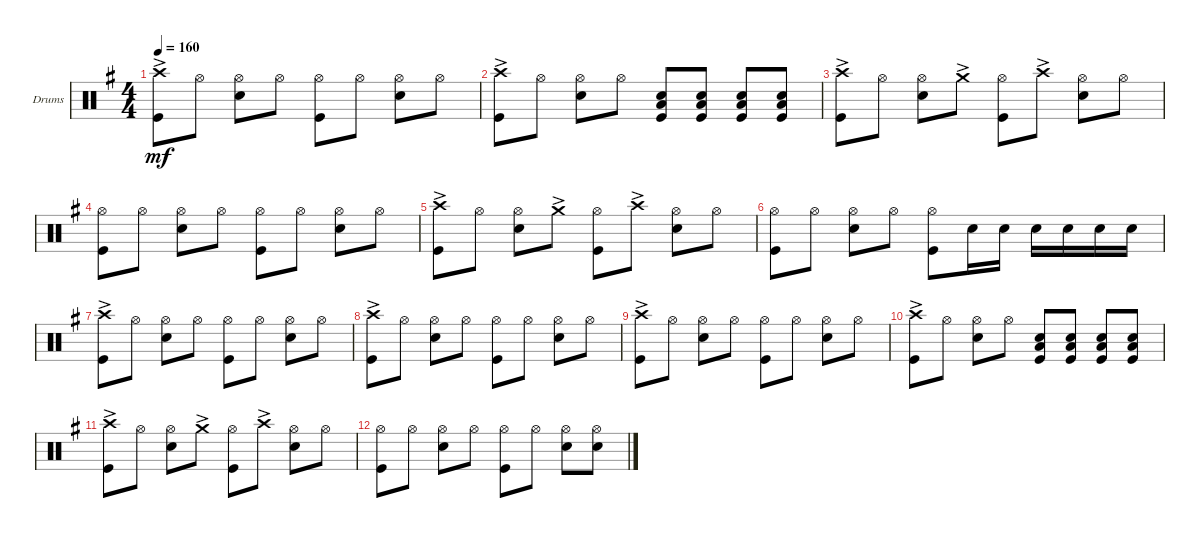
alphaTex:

\defaultSystemsLayout 4
\bracketExtendMode groupsimilarinstruments
\firstSystemTrackNameOrientation horizontal
\otherSystemsTrackNameOrientation horizontal
\track ("Drumkit" "Drums") {instrument percussion}
\staff {score}
\articulation defaults
\ts (4 4)
\tempo 160
\clef neutral
\ks eminor
("Kick (hit)" "Crash high (hit)"{ac}).8{dy mf} "Hi-Hat (open)".8 ("Hi-Hat (open)" "Snare (hit) 2").8 "Hi-Hat (open)".8 ("Hi-Hat (open)" "Kick (hit)").8 "Hi-Hat (open)".8 ("Hi-Hat (open)" "Snare (hit) 2").8 "Hi-Hat (open)".8 |
("Kick (hit)" "Crash high (hit)"{ac}).8 "Hi-Hat (open)".8 ("Hi-Hat (open)" "Snare (hit) 2").8 "Hi-Hat (open)".8 ("Snare (hit) 2" "Low Tom (hit)" "Kick (hit)").8 ("Snare (hit) 2" "Low Tom (hit)" "Kick (hit)").8 ("Snare (hit) 2" "Low Tom (hit)" "Kick (hit)").8 ("Snare (hit) 2" "Low Tom (hit)" "Kick (hit)").8 |
("Kick (hit)" "Crash high (hit)"{ac}).8 "Hi-Hat (open)".8 ("Hi-Hat (open)" "Snare (hit) 2").8 "Crash medium (hit)"{ac}.8 ("Hi-Hat (open)" "Kick (hit)").8 "Crash high (hit)"{ac}.8 ("Snare (hit) 2" "Hi-Hat (open)").8 "Hi-Hat (open)".8 |
("Kick (hit)" "Hi-Hat (open)").8 "Hi-Hat (open)".8 ("Hi-Hat (open)" "Snare (hit) 2").8 "Hi-Hat (open)".8 ("Hi-Hat (open)" "Kick (hit)").8 "Hi-Hat (open)".8 ("Hi-Hat (open)" "Snare (hit) 2").8 "Hi-Hat (open)".8 |
("Kick (hit)" "Crash high (hit)"{ac}).8 "Hi-Hat (open)".8 ("Hi-Hat (open)" "Snare (hit) 2").8 "Crash medium (hit)"{ac}.8 ("Hi-Hat (open)" "Kick (hit)").8 "Crash high (hit)"{ac}.8 ("Snare (hit) 2" "Hi-Hat (open)").8 "Hi-Hat (open)".8 |
("Kick (hit)" "Hi-Hat (open)").8 "Hi-Hat (open)".8 ("Hi-Hat (open)" "Snare (hit) 2").8 "Hi-Hat (open)".8 ("Hi-Hat (open)" "Kick (hit)").8 "Snare (hit) 2".16 "Snare (hit) 2".16 "Snare (hit) 2".16 "Snare (hit) 2".16 "Snare (hit) 2".16 "Snare (hit) 2".16 |
("Kick (hit)" "Crash high (hit)"{ac}).8 "Hi-Hat (open)".8 ("Hi-Hat (open)" "Snare (hit) 2").8 "Hi-Hat (open)".8 ("Hi-Hat (open)" "Kick (hit)").8 "Hi-Hat (open)".8 ("Hi-Hat (open)" "Snare (hit) 2").8 "Hi-Hat (open)".8 |
("Kick (hit)" "Crash high (hit)"{ac}).8 "Hi-Hat (open)".8 ("Hi-Hat (open)" "Snare (hit) 2").8 "Hi-Hat (open)".8 ("Hi-Hat (open)" "Kick (hit)").8 "Hi-Hat (open)".8 ("Hi-Hat (open)" "Snare (hit) 2").8 "Hi-Hat (open)".8 |
("Kick (hit)" "Crash high (hit)"{ac}).8 "Hi-Hat (open)".8 ("Hi-Hat (open)" "Snare (hit) 2").8 "Hi-Hat (open)".8 ("Hi-Hat (open)" "Kick (hit)").8 "Hi-Hat (open)".8 ("Hi-Hat (open)" "Snare (hit) 2").8 "Hi-Hat (open)".8 |
("Kick (hit)" "Crash high (hit)"{ac}).8 "Hi-Hat (open)".8 ("Hi-Hat (open)" "Snare (hit) 2").8 "Hi-Hat (open)".8 ("Snare (hit) 2" "Low Tom (hit)" "Kick (hit)").8 ("Snare (hit) 2" "Low Tom (hit)" "Kick (hit)").8 ("Snare (hit) 2" "Low Tom (hit)" "Kick (hit)").8 ("Snare (hit) 2" "Low Tom (hit)" "Kick (hit)").8 |
("Kick (hit)" "Crash high (hit)"{ac}).8 "Hi-Hat (open)".8 ("Hi-Hat (open)" "Snare (hit) 2").8 "Crash medium (hit)"{ac}.8 ("Hi-Hat (open)" "Kick (hit)").8 "Crash high (hit)"{ac}.8 ("Snare (hit) 2" "Hi-Hat (open)").8 "Hi-Hat (open)".8 |
("Kick (hit)" "Hi-Hat (open)").8 "Hi-Hat (open)".8 ("Hi-Hat (open)" "Snare (hit) 2").8 "Hi-Hat (open)".8 ("Hi-Hat (open)" "Kick (hit)").8 "Hi-Hat (open)".8 ("Hi-Hat (open)" "Snare (hit) 2").8 ("Hi-Hat (open)" "Snare (hit) 2").8
